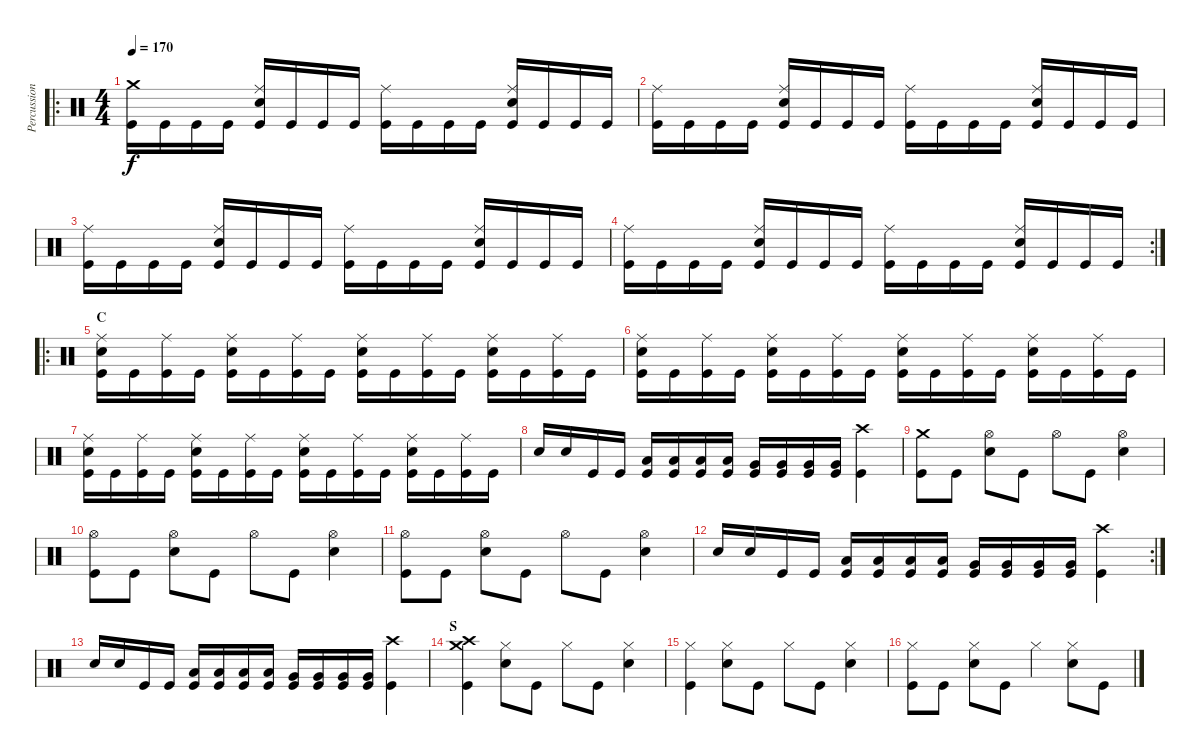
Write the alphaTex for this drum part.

\track ("Percussion" "Percussion") {instrument percussion}
\staff {score}
\articulation defaults
\ro
\ts (4 4)
\tempo 170
\clef neutral
\ks c
("Crash medium (hit)" "Kick (hit)").16{dy f} "Kick (hit)".16 "Kick (hit)".16 "Kick (hit)".16 ("Ride (middle)" "Electric Snare (hit)" "Kick (hit)").16 "Kick (hit)".16 "Kick (hit)".16 "Kick (hit)".16 ("Ride (middle)" "Kick (hit)").16 "Kick (hit)".16 "Kick (hit)".16 "Kick (hit)".16 ("Ride (middle)" "Electric Snare (hit)" "Kick (hit)").16 "Kick (hit)".16 "Kick (hit)".16 "Kick (hit)".16 |
("Ride (middle)" "Kick (hit)").16 "Kick (hit)".16 "Kick (hit)".16 "Kick (hit)".16 ("Ride (middle)" "Electric Snare (hit)" "Kick (hit)").16 "Kick (hit)".16 "Kick (hit)".16 "Kick (hit)".16 ("Ride (middle)" "Kick (hit)").16 "Kick (hit)".16 "Kick (hit)".16 "Kick (hit)".16 ("Ride (middle)" "Electric Snare (hit)" "Kick (hit)").16 "Kick (hit)".16 "Kick (hit)".16 "Kick (hit)".16 |
("Ride (middle)" "Kick (hit)").16 "Kick (hit)".16 "Kick (hit)".16 "Kick (hit)".16 ("Ride (middle)" "Electric Snare (hit)" "Kick (hit)").16 "Kick (hit)".16 "Kick (hit)".16 "Kick (hit)".16 ("Ride (middle)" "Kick (hit)").16 "Kick (hit)".16 "Kick (hit)".16 "Kick (hit)".16 ("Ride (middle)" "Electric Snare (hit)" "Kick (hit)").16 "Kick (hit)".16 "Kick (hit)".16 "Kick (hit)".16 |
\rc 2
("Ride (middle)" "Kick (hit)").16 "Kick (hit)".16 "Kick (hit)".16 "Kick (hit)".16 ("Ride (middle)" "Electric Snare (hit)" "Kick (hit)").16 "Kick (hit)".16 "Kick (hit)".16 "Kick (hit)".16 ("Ride (middle)" "Kick (hit)").16 "Kick (hit)".16 "Kick (hit)".16 "Kick (hit)".16 ("Ride (middle)" "Electric Snare (hit)" "Kick (hit)").16 "Kick (hit)".16 "Kick (hit)".16 "Kick (hit)".16 |
\ro
\section ("" "C")
("Ride (middle)" "Electric Snare (hit)" "Kick (hit)").16 "Kick (hit)".16 ("Ride (middle)" "Kick (hit)").16 "Kick (hit)".16 ("Ride (middle)" "Electric Snare (hit)" "Kick (hit)").16 "Kick (hit)".16 ("Ride (middle)" "Kick (hit)").16 "Kick (hit)".16 ("Ride (middle)" "Electric Snare (hit)" "Kick (hit)").16 "Kick (hit)".16 ("Ride (middle)" "Kick (hit)").16 "Kick (hit)".16 ("Ride (middle)" "Electric Snare (hit)" "Kick (hit)").16 "Kick (hit)".16 ("Ride (middle)" "Kick (hit)").16 "Kick (hit)".16 |
("Ride (middle)" "Electric Snare (hit)" "Kick (hit)").16 "Kick (hit)".16 ("Ride (middle)" "Kick (hit)").16 "Kick (hit)".16 ("Ride (middle)" "Electric Snare (hit)" "Kick (hit)").16 "Kick (hit)".16 ("Ride (middle)" "Kick (hit)").16 "Kick (hit)".16 ("Ride (middle)" "Electric Snare (hit)" "Kick (hit)").16 "Kick (hit)".16 ("Ride (middle)" "Kick (hit)").16 "Kick (hit)".16 ("Ride (middle)" "Electric Snare (hit)" "Kick (hit)").16 "Kick (hit)".16 ("Ride (middle)" "Kick (hit)").16 "Kick (hit)".16 |
("Ride (middle)" "Electric Snare (hit)" "Kick (hit)").16 "Kick (hit)".16 ("Ride (middle)" "Kick (hit)").16 "Kick (hit)".16 ("Ride (middle)" "Electric Snare (hit)" "Kick (hit)").16 "Kick (hit)".16 ("Ride (middle)" "Kick (hit)").16 "Kick (hit)".16 ("Ride (middle)" "Electric Snare (hit)" "Kick (hit)").16 "Kick (hit)".16 ("Ride (middle)" "Kick (hit)").16 "Kick (hit)".16 ("Ride (middle)" "Electric Snare (hit)" "Kick (hit)").16 "Kick (hit)".16 ("Ride (middle)" "Kick (hit)").16 "Kick (hit)".16 |
"Electric Snare (hit)".16 "Electric Snare (hit)".16 "Kick (hit)".16 "Kick (hit)".16 ("Low Tom (hit)" "Kick (hit)").16 ("Low Tom (hit)" "Kick (hit)").16 ("Low Tom (hit)" "Kick (hit)").16 ("Low Tom (hit)" "Kick (hit)").16 ("Very Low Tom (hit)" "Kick (hit)").16 ("Very Low Tom (hit)" "Kick (hit)").16 ("Very Low Tom (hit)" "Kick (hit)").16 ("Very Low Tom (hit)" "Kick (hit)").16 ("Crash high (hit)" "Kick (hit)").4 |
("Crash medium (hit)" "Kick (hit)").8 "Kick (hit)".8 ("Hi-Hat (open)" "Electric Snare (hit)").8 "Kick (hit)".8 "Hi-Hat (open)".8 "Kick (hit)".8 ("Hi-Hat (open)" "Electric Snare (hit)").4 |
("Hi-Hat (open)" "Kick (hit)").8 "Kick (hit)".8 ("Hi-Hat (open)" "Electric Snare (hit)").8 "Kick (hit)".8 "Hi-Hat (open)".8 "Kick (hit)".8 ("Hi-Hat (open)" "Electric Snare (hit)").4 |
("Hi-Hat (open)" "Kick (hit)").8 "Kick (hit)".8 ("Hi-Hat (open)" "Electric Snare (hit)").8 "Kick (hit)".8 "Hi-Hat (open)".8 "Kick (hit)".8 ("Hi-Hat (open)" "Electric Snare (hit)").4 |
\rc 2 "Electric Snare (hit)".16 "Electric Snare (hit)".16 "Kick (hit)".16 "Kick (hit)".16
("Low Tom (hit)" "Kick (hit)").16 ("Low Tom (hit)" "Kick (hit)").16 ("Low Tom (hit)" "Kick (hit)").16 ("Low Tom (hit)" "Kick (hit)").16 ("Very Low Tom (hit)" "Kick (hit)").16 ("Very Low Tom (hit)" "Kick (hit)").16 ("Very Low Tom (hit)" "Kick (hit)").16 ("Very Low Tom (hit)" "Kick (hit)").16 ("Crash high (hit)" "Kick (hit)").4 |
"Electric Snare (hit)".16 "Electric Snare (hit)".16 "Kick (hit)".16 "Kick (hit)".16 ("Low Tom (hit)" "Kick (hit)").16 ("Low Tom (hit)" "Kick (hit)").16 ("Low Tom (hit)" "Kick (hit)").16 ("Low Tom (hit)" "Kick (hit)").16 ("Very Low Tom (hit)" "Kick (hit)").16 ("Very Low Tom (hit)" "Kick (hit)").16 ("Very Low Tom (hit)" "Kick (hit)").16 ("Very Low Tom (hit)" "Kick (hit)").16 ("Crash high (hit)" "Kick (hit)").4 |
\section ("" "S")
("Crash high (hit)" "Crash medium (hit)" "Kick (hit)").4 ("Hi-Hat (closed)" "Electric Snare (hit)").8 "Kick (hit)".8 "Hi-Hat (closed)".8 "Kick (hit)".8 ("Hi-Hat (closed)" "Electric Snare (hit)").4 |
("Hi-Hat (closed)" "Kick (hit)").4 ("Hi-Hat (closed)" "Electric Snare (hit)").8 "Kick (hit)".8 "Hi-Hat (closed)".8 "Kick (hit)".8 ("Hi-Hat (closed)" "Electric Snare (hit)").4 |
("Hi-Hat (closed)" "Kick (hit)").8 "Kick (hit)".8 ("Hi-Hat (closed)" "Electric Snare (hit)").8 "Kick (hit)".8 "Hi-Hat (closed)".4 ("Hi-Hat (closed)" "Electric Snare (hit)").8 "Kick (hit)".8
